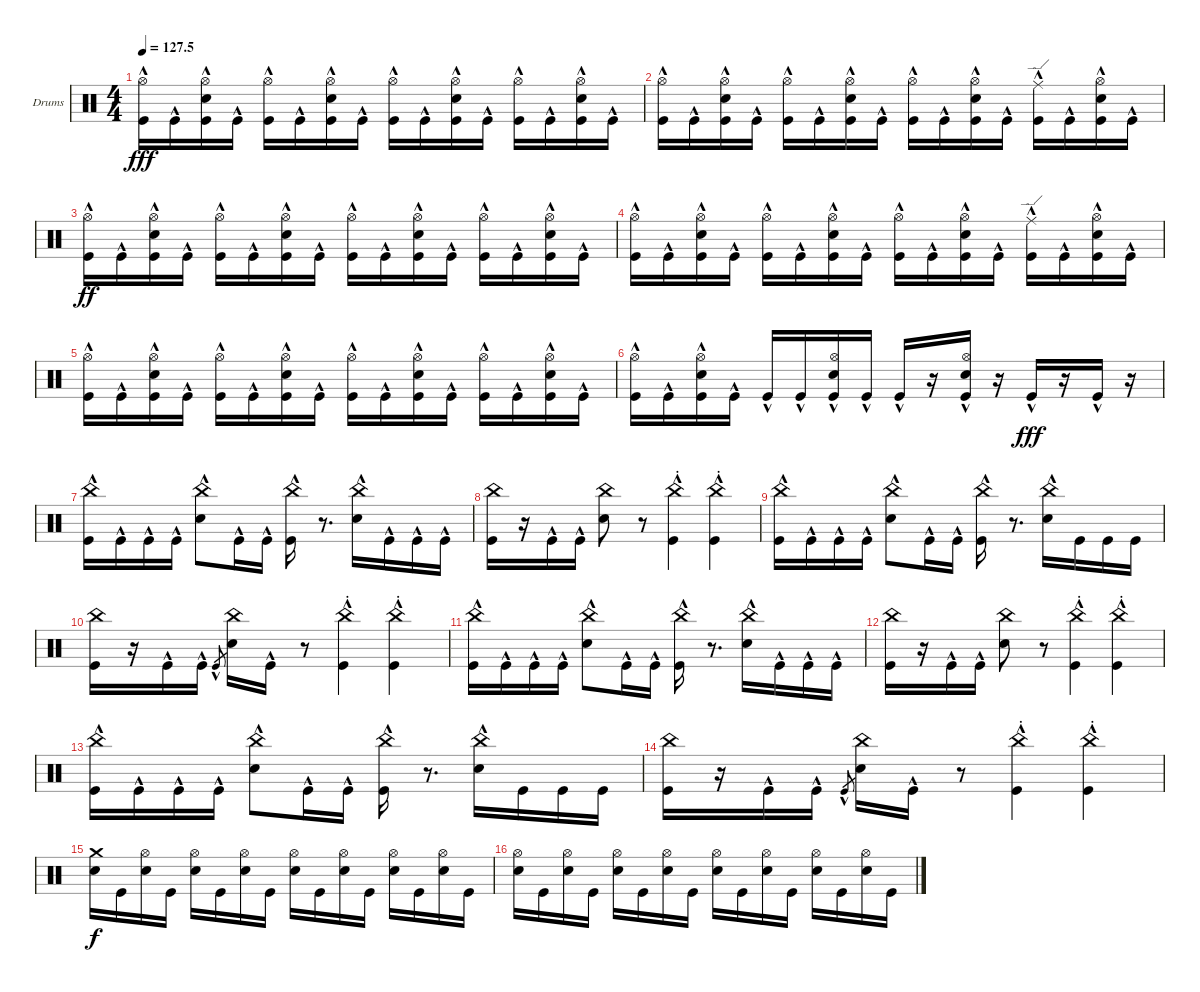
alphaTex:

\defaultSystemsLayout 4
\bracketExtendMode groupsimilarinstruments
\firstSystemTrackNameOrientation horizontal
\otherSystemsTrackNameOrientation horizontal
\track ("Drumkit" "Drums") {instrument percussion}
\staff {score}
\articulation defaults
\ts (4 4)
\tempo
127.5
\accidentals auto
\clef neutral
\ottava regular
\simile none
\ks c
("Kick (hit)"{hac} "Hi-Hat (open)"{hac}).16{dy fff} "Kick (hit)"{hac}.16 ("Snare (hit) 2"{hac} "Kick (hit)"{hac} "Hi-Hat (open)"{hac}).16 "Kick (hit)"{hac}.16 ("Kick (hit)"{hac} "Hi-Hat (open)"{hac}).16 "Kick (hit)"{hac}.16 ("Snare (hit) 2"{hac} "Kick (hit)"{hac} "Hi-Hat (open)"{hac}).16 "Kick (hit)"{hac}.16 ("Kick (hit)"{hac} "Hi-Hat (open)"{hac}).16 "Kick (hit)"{hac}.16 ("Kick (hit)"{hac} "Snare (hit) 2"{hac} "Hi-Hat (open)"{hac}).16 "Kick (hit)"{hac}.16 ("Kick (hit)"{hac} "Hi-Hat (open)"{hac}).16 "Kick (hit)"{hac}.16 ("Kick (hit)"{hac} "Snare (hit) 2"{hac} "Hi-Hat (open)"{hac}).16 "Kick (hit)"{hac}.16 |
("Kick (hit)"{hac} "Hi-Hat (open)"{hac}).16 "Kick (hit)"{hac}.16 ("Snare (hit) 2"{hac} "Kick (hit)"{hac} "Hi-Hat (open)"{hac}).16 "Kick (hit)"{hac}.16 ("Kick (hit)"{hac} "Hi-Hat (open)"{hac}).16 "Kick (hit)"{hac}.16 ("Snare (hit) 2"{hac} "Kick (hit)"{hac} "Hi-Hat (open)"{hac}).16 "Kick (hit)"{hac}.16 ("Kick (hit)"{hac} "Hi-Hat (open)"{hac}).16 "Kick (hit)"{hac}.16 ("Kick (hit)"{hac} "Snare (hit) 2"{hac} "Hi-Hat (open)"{hac}).16 "Kick (hit)"{hac}.16 ("Kick (hit)"{hac} "Ride (edge)").16 "Kick (hit)"{hac}.16 ("Kick (hit)"{hac} "Snare (hit) 2"{hac} "Hi-Hat (open)").16 "Kick (hit)"{hac}.16 |
("Kick (hit)"{hac} "Hi-Hat (open)"{hac}).16{dy ff} "Kick (hit)"{hac}.16 ("Snare (hit) 2"{hac} "Kick (hit)"{hac} "Hi-Hat (open)"{hac}).16 "Kick (hit)"{hac}.16 ("Kick (hit)"{hac} "Hi-Hat (open)"{hac}).16 "Kick (hit)"{hac}.16 ("Snare (hit) 2"{hac} "Kick (hit)"{hac} "Hi-Hat (open)"{hac}).16 "Kick (hit)"{hac}.16 ("Kick (hit)"{hac} "Hi-Hat (open)"{hac}).16 "Kick (hit)"{hac}.16 ("Kick (hit)"{hac} "Snare (hit) 2"{hac} "Hi-Hat (open)"{hac}).16 "Kick (hit)"{hac}.16 ("Kick (hit)"{hac} "Hi-Hat (open)"{hac}).16 "Kick (hit)"{hac}.16 ("Kick (hit)"{hac} "Snare (hit) 2"{hac} "Hi-Hat (open)"{hac}).16 "Kick (hit)"{hac}.16 |
("Kick (hit)"{hac} "Hi-Hat (open)"{hac}).16 "Kick (hit)"{hac}.16 ("Snare (hit) 2"{hac} "Kick (hit)"{hac} "Hi-Hat (open)"{hac}).16 "Kick (hit)"{hac}.16 ("Kick (hit)"{hac} "Hi-Hat (open)"{hac}).16 "Kick (hit)"{hac}.16 ("Snare (hit) 2"{hac} "Kick (hit)"{hac} "Hi-Hat (open)"{hac}).16 "Kick (hit)"{hac}.16 ("Kick (hit)"{hac} "Hi-Hat (open)"{hac}).16 "Kick (hit)"{hac}.16 ("Kick (hit)"{hac} "Snare (hit) 2"{hac} "Hi-Hat (open)"{hac}).16 "Kick (hit)"{hac}.16 ("Kick (hit)"{hac} "Ride (edge)"{hac}).16 "Kick (hit)"{hac}.16 ("Kick (hit)"{hac} "Snare (hit) 2"{hac} "Hi-Hat (open)"{hac}).16 "Kick (hit)"{hac}.16 |
("Kick (hit)"{hac} "Hi-Hat (open)"{hac}).16 "Kick (hit)"{hac}.16 ("Snare (hit) 2"{hac} "Kick (hit)"{hac} "Hi-Hat (open)"{hac}).16 "Kick (hit)"{hac}.16 ("Kick (hit)"{hac} "Hi-Hat (open)"{hac}).16 "Kick (hit)"{hac}.16 ("Snare (hit) 2"{hac} "Kick (hit)"{hac} "Hi-Hat (open)"{hac}).16 "Kick (hit)"{hac}.16 ("Kick (hit)"{hac} "Hi-Hat (open)"{hac}).16 "Kick (hit)"{hac}.16 ("Kick (hit)"{hac} "Snare (hit) 2"{hac} "Hi-Hat (open)"{hac}).16 "Kick (hit)"{hac}.16 ("Kick (hit)"{hac} "Hi-Hat (open)"{hac}).16 "Kick (hit)"{hac}.16 ("Kick (hit)"{hac} "Snare (hit) 2"{hac} "Hi-Hat (open)"{hac}).16 "Kick (hit)"{hac}.16 |
("Kick (hit)"{hac} "Hi-Hat (open)"{hac}).16 "Kick (hit)"{hac}.16 ("Snare (hit) 2"{hac} "Kick (hit)"{hac} "Hi-Hat (open)"{hac}).16 "Kick (hit)"{hac}.16 "Kick (hit)"{hac}.16 "Kick (hit)"{hac}.16 ("Snare (hit) 2"{hac} "Kick (hit)"{hac} "Hi-Hat (open)"{hac}).16 "Kick (hit)"{hac}.16 "Kick (hit)"{hac}.16 r.16 ("Kick (hit)"{hac} "Snare (hit) 2"{hac} "Hi-Hat (open)"{hac}).16 r.16 "Kick (hit)"{hac}.16{dy fff} r.16 "Kick (hit)"{hac}.16 r.16 |
("Kick (hit)"{hac} "China (hit)").16 "Kick (hit)"{hac}.16 "Kick (hit)"{hac}.16 "Kick (hit)"{hac}.16 ("Snare (hit) 2"{hac} "China (hit)").8 "Kick (hit)"{hac}.16 "Kick (hit)"{hac}.16 ("Kick (hit)"{hac} "China (hit)").16 r.8{d} ("Snare (hit) 2"{hac} "China (hit)").16 "Kick (hit)"{hac}.16 "Kick (hit)"{hac}.16 "Kick (hit)"{hac}.16 |
("Kick (hit)" "China (hit)").16 r.16 "Kick (hit)"{hac}.16 "Kick (hit)"{hac}.16 ("Snare (hit) 2" "China (hit)").8 r.8 ("Kick (hit)"{hac} "China (hit)"{st}).4 ("Kick (hit)"{hac} "China (hit)"{st}).4 |
("Kick (hit)"{hac} "China (hit)").16 "Kick (hit)"{hac}.16 "Kick (hit)"{hac}.16 "Kick (hit)"{hac}.16 ("Snare (hit) 2"{hac} "China (hit)").8 "Kick (hit)"{hac}.16 "Kick (hit)"{hac}.16 ("Kick (hit)"{hac} "China (hit)").16 r.8{d} ("Snare (hit) 2"{hac} "China (hit)").16 "Kick (hit)".16 "Kick (hit)".16 "Kick (hit)".16 |
("Kick (hit)" "China (hit)").16 r.16 "Kick (hit)"{hac}.16 "Kick (hit)"{hac}.16 "Kick (hit)"{hac}.8{gr} ("Snare (hit) 2" "China (hit)").16 "Kick (hit)"{hac}.16 r.8 ("Kick (hit)"{hac} "China (hit)"{st}).4 ("Kick (hit)"{hac} "China (hit)"{st}).4 |
("Kick (hit)"{hac} "China (hit)").16 "Kick (hit)"{hac}.16 "Kick (hit)"{hac}.16 "Kick (hit)"{hac}.16 ("Snare (hit) 2"{hac} "China (hit)").8 "Kick (hit)"{hac}.16 "Kick (hit)"{hac}.16 ("Kick (hit)"{hac} "China (hit)").16 r.8{d} ("Snare (hit) 2"{hac} "China (hit)").16 "Kick (hit)"{hac}.16 "Kick (hit)"{hac}.16 "Kick (hit)"{hac}.16 |
("Kick (hit)" "China (hit)").16 r.16 "Kick (hit)"{hac}.16 "Kick (hit)"{hac}.16 ("Snare (hit) 2" "China (hit)").8 r.8 ("Kick (hit)"{hac} "China (hit)"{st}).4 ("Kick (hit)"{hac} "China (hit)"{st}).4 |
("Kick (hit)"{hac} "China (hit)").16 "Kick (hit)"{hac}.16 "Kick (hit)"{hac}.16 "Kick (hit)"{hac}.16 ("Snare (hit) 2"{hac} "China (hit)").8 "Kick (hit)"{hac}.16 "Kick (hit)"{hac}.16 ("Kick (hit)"{hac} "China (hit)").16 r.8{d} ("Snare (hit) 2"{hac} "China (hit)").16 "Kick (hit)".16 "Kick (hit)".16 "Kick (hit)".16 |
("Kick (hit)" "China (hit)").16 r.16 "Kick (hit)"{hac}.16 "Kick (hit)"{hac}.16 "Kick (hit)"{hac}.8{gr} ("Snare (hit) 2" "China (hit)").16 "Kick (hit)"{hac}.16 r.8 ("Kick (hit)"{hac} "China (hit)"{st}).4 ("Kick (hit)"{hac} "China (hit)"{st}).4 |
("Crash medium (hit)" "Snare (hit) 2").16{dy f} "Kick (hit)".16 ("Hi-Hat (open)" "Snare (hit) 2").16 "Kick (hit)".16 ("Hi-Hat (open)" "Snare (hit) 2").16 "Kick (hit)".16 ("Hi-Hat (open)" "Snare (hit) 2").16 "Kick (hit)".16 ("Hi-Hat (open)" "Snare (hit) 2").16 "Kick (hit)".16 ("Hi-Hat (open)" "Snare (hit) 2").16 "Kick (hit)".16 ("Hi-Hat (open)" "Snare (hit) 2").16 "Kick (hit)".16 ("Hi-Hat (open)" "Snare (hit) 2").16 "Kick (hit)".16 |
("Hi-Hat (open)" "Snare (hit) 2").16 "Kick (hit)".16 ("Hi-Hat (open)" "Snare (hit) 2").16 "Kick (hit)".16 ("Hi-Hat (open)" "Snare (hit) 2").16 "Kick (hit)".16 ("Hi-Hat (open)" "Snare (hit) 2").16 "Kick (hit)".16 ("Hi-Hat (open)" "Snare (hit) 2").16 "Kick (hit)".16 ("Hi-Hat (open)" "Snare (hit) 2").16 "Kick (hit)".16 ("Hi-Hat (open)" "Snare (hit) 2").16 "Kick (hit)".16 ("Hi-Hat (open)" "Snare (hit) 2").16 "Kick (hit)".16
